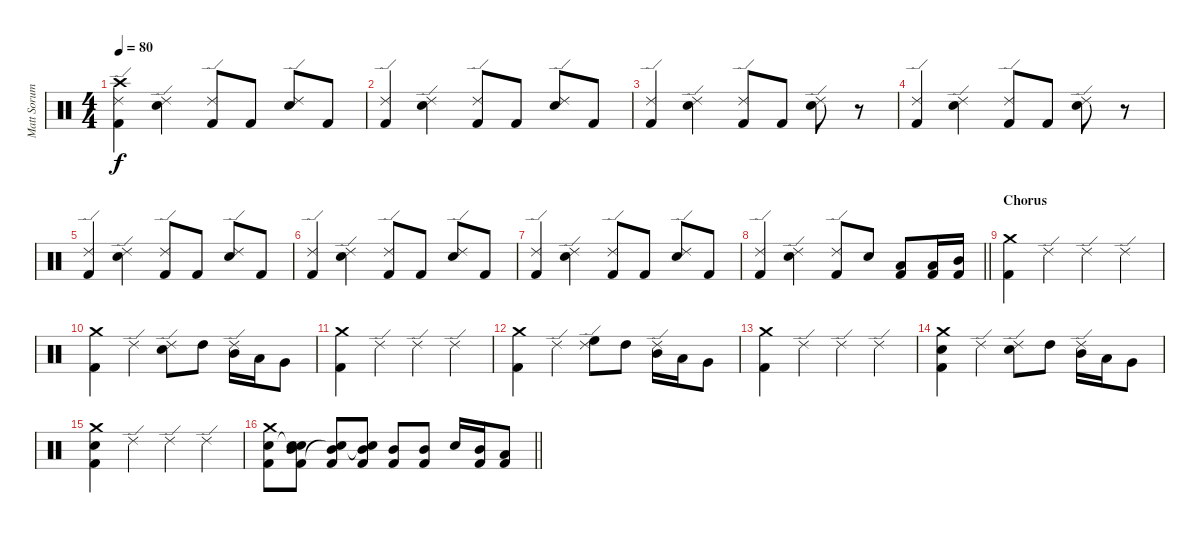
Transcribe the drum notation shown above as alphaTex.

\track ("Matt Sorum" "Matt Sorum") {instrument percussion}
\staff {score}
\articulation defaults
\ts (4 4)
\tempo 80
\clef neutral
\ks c
("Ride (edge) 2" "Kick (hit) 2" "Crash high (hit)").4{dy f} ("Electric Snare (hit)" "Ride (edge) 2").4 ("Ride (edge) 2" "Kick (hit) 2").8 "Kick (hit) 2".8 ("Electric Snare (hit)" "Ride (edge) 2").8 "Kick (hit) 2".8 |
("Ride (edge) 2" "Kick (hit) 2").4 ("Electric Snare (hit)" "Ride (edge) 2").4 ("Ride (edge) 2" "Kick (hit) 2").8 "Kick (hit) 2".8 ("Electric Snare (hit)" "Ride (edge) 2").8 "Kick (hit) 2".8 |
("Ride (edge) 2" "Kick (hit) 2").4 ("Electric Snare (hit)" "Ride (edge) 2").4 ("Ride (edge) 2" "Kick (hit) 2").8 "Kick (hit) 2".8 ("Electric Snare (hit)" "Ride (edge) 2").8 r.8 |
("Ride (edge) 2" "Kick (hit) 2").4 ("Electric Snare (hit)" "Ride (edge) 2").4 ("Ride (edge) 2" "Kick (hit) 2").8 "Kick (hit) 2".8 ("Electric Snare (hit)" "Ride (edge) 2").8 r.8 |
("Ride (edge) 2" "Kick (hit) 2").4 ("Electric Snare (hit)" "Ride (edge) 2").4 ("Ride (edge) 2" "Kick (hit) 2").8 "Kick (hit) 2".8 ("Electric Snare (hit)" "Ride (edge) 2").8 "Kick (hit) 2".8 |
("Ride (edge) 2" "Kick (hit) 2").4 ("Electric Snare (hit)" "Ride (edge) 2").4 ("Ride (edge) 2" "Kick (hit) 2").8 "Kick (hit) 2".8 ("Electric Snare (hit)" "Ride (edge) 2").8 "Kick (hit) 2".8 |
("Ride (edge) 2" "Kick (hit) 2").4 ("Electric Snare (hit)" "Ride (edge) 2").4 ("Ride (edge) 2" "Kick (hit) 2").8 "Kick (hit) 2".8 ("Electric Snare (hit)" "Ride (edge) 2").8 "Kick (hit) 2".8 |
\barLineRight lightlight
("Ride (edge) 2" "Kick (hit) 2").4 ("Electric Snare (hit)" "Ride (edge) 2").4 ("Ride (edge) 2" "Kick (hit) 2").8 "Electric Snare (hit)".8 ("Low Tom (hit)" "Kick (hit) 2").8 ("Low Tom (hit)" "Kick (hit) 2").16 ("Mid Tom (hit)" "Kick (hit) 2").16 |
\section ("" "Chorus")
("Crash medium (hit)" "Kick (hit) 2").4 "Ride (edge) 2".4 "Ride (edge) 2".4 "Ride (edge) 2".4 |
("Crash medium (hit)" "Kick (hit) 2").4 "Ride (edge) 2".4 ("Ride (edge) 2" "Electric Snare (hit)").8 "High Tom (hit)".8 ("Ride (edge) 2" "Mid Tom (hit)").16 "Low Tom (hit)".16 "Very Low Tom (hit)".8 |
("Crash medium (hit)" "Kick (hit) 2").4 "Ride (edge) 2".4 "Ride (edge) 2".4 "Ride (edge) 2".4 |
("Crash medium (hit)" "Kick (hit) 2").4 "Ride (edge) 2".4 ("Ride (edge) 2" "High Floor Tom (hit)").8 "High Tom (hit)".8 ("Ride (edge) 2" "Mid Tom (hit)").16 "Low Tom (hit)".16 "Very Low Tom (hit)".8 |
("Crash medium (hit)" "Kick (hit) 2").4 "Ride (edge) 2".4 "Ride (edge) 2".4 "Ride (edge) 2".4 |
("Electric Snare (hit)" "Crash medium (hit)" "Kick (hit) 2").4 "Ride (edge) 2".4 ("Ride (edge) 2" "Electric Snare (hit)").8 "High Tom (hit)".8 ("Ride (edge) 2" "Mid Tom (hit)").16 "Low Tom (hit)".16 "Very Low Tom (hit)".8 |
("Electric Snare (hit)" "Crash medium (hit)" "Kick (hit) 2").4 "Ride (edge) 2".4 "Ride (edge) 2".4 "Ride (edge) 2".4 |
\barLineRight lightlight
("Electric Snare (hit)" "Kick (hit) 2" "Crash medium (hit)").8 ("Snare (hit)"{t} "Mid Tom (hit)" "Kick (hit) 2" "Snare (hit)").8 ("Mid Tom (hit)" "Kick (hit) 2" "Snare (hit)"{t}).8 ("Mid Tom (hit)" "Kick (hit) 2" "Snare (hit)"{t}).8 ("Mid Tom (hit)" "Kick (hit) 2").8 ("Mid Tom (hit)" "Kick (hit) 2").8 "Electric Snare (hit)".16 ("Mid Tom (hit)" "Kick (hit) 2").16 ("Low Tom (hit)" "Kick (hit) 2").8
